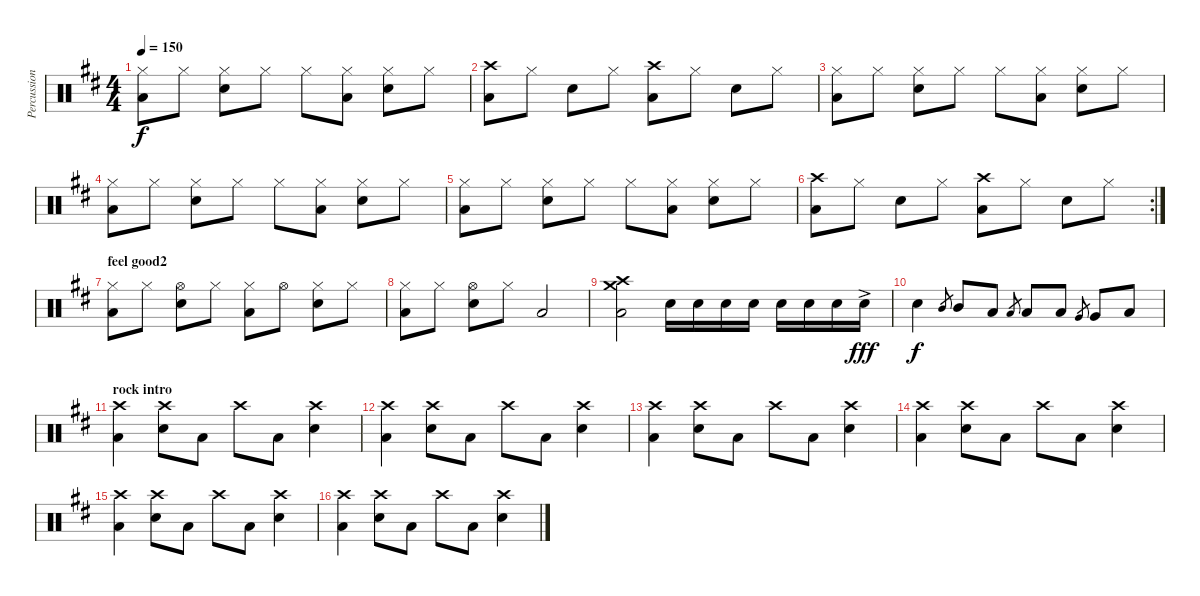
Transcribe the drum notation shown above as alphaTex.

\track ("Percussion" "Percussion") {instrument percussion}
\staff {score}
\articulation defaults
\ts (4 4)
\tempo 150
\clef neutral
\ks bminor
("Hi-Hat (closed)" "Low Floor Tom (hit)").8{dy f} "Hi-Hat (closed)".8 ("Hi-Hat (closed)" "Electric Snare (hit)").8 "Hi-Hat (closed)".8 "Hi-Hat (closed)".8 ("Hi-Hat (closed)" "Low Floor Tom (hit)").8 ("Hi-Hat (closed)" "Electric Snare (hit)").8 "Hi-Hat (closed)".8 |
("Low Floor Tom (hit)" "Crash high (hit)").8 "Hi-Hat (closed)".8 "Electric Snare (hit)".8 "Hi-Hat (closed)".8 ("Crash high (hit)" "Low Floor Tom (hit)").8 "Hi-Hat (closed)".8 "Electric Snare (hit)".8 "Hi-Hat (closed)".8 |
("Hi-Hat (closed)" "Low Floor Tom (hit)").8 "Hi-Hat (closed)".8 ("Hi-Hat (closed)" "Electric Snare (hit)").8 "Hi-Hat (closed)".8 "Hi-Hat (closed)".8 ("Hi-Hat (closed)" "Low Floor Tom (hit)").8 ("Hi-Hat (closed)" "Electric Snare (hit)").8 "Hi-Hat (closed)".8 |
("Hi-Hat (closed)" "Low Floor Tom (hit)").8 "Hi-Hat (closed)".8 ("Hi-Hat (closed)" "Electric Snare (hit)").8 "Hi-Hat (closed)".8 "Hi-Hat (closed)".8 ("Hi-Hat (closed)" "Low Floor Tom (hit)").8 ("Hi-Hat (closed)" "Electric Snare (hit)").8 "Hi-Hat (closed)".8 |
("Hi-Hat (closed)" "Low Floor Tom (hit)").8 "Hi-Hat (closed)".8 ("Hi-Hat (closed)" "Electric Snare (hit)").8 "Hi-Hat (closed)".8 "Hi-Hat (closed)".8 ("Hi-Hat (closed)" "Low Floor Tom (hit)").8 ("Hi-Hat (closed)" "Electric Snare (hit)").8 "Hi-Hat (closed)".8 |
\rc 2
("Low Floor Tom (hit)" "Crash high (hit)").8 "Hi-Hat (closed)".8 "Electric Snare (hit)".8 "Hi-Hat (closed)".8 ("Crash high (hit)" "Low Floor Tom (hit)").8 "Hi-Hat (closed)".8 "Electric Snare (hit)".8 "Hi-Hat (closed)".8 |
\section ("" "feel good2")
("Low Floor Tom (hit)" "Hi-Hat (closed)").8 "Hi-Hat (closed)".8 ("Electric Snare (hit)" "Hi-Hat (open)").8 "Hi-Hat (closed)".8 ("Low Floor Tom (hit)" "Hi-Hat (closed)").8 "Hi-Hat (open)".8 ("Electric Snare (hit)" "Hi-Hat (closed)").8 "Hi-Hat (closed)".8 |
("Low Floor Tom (hit)" "Hi-Hat (closed)").8 "Hi-Hat (closed)".8 ("Electric Snare (hit)" "Hi-Hat (open)").8 "Hi-Hat (closed)".8 "Low Floor Tom (hit)".2 |
("Crash medium (hit)" "Low Floor Tom (hit)" "Crash high (hit)").2 "Electric Snare (hit)".16 "Electric Snare (hit)".16 "Electric Snare (hit)".16 "Electric Snare (hit)".16 "Electric Snare (hit)".16 "Electric Snare (hit)".16 "Electric Snare (hit)".16 "Electric Snare (hit)"{ac}.16{dy fff} |
"Electric Snare (hit)".4{dy f} "Mid Tom (hit)".8{gr} "Mid Tom (hit)".8 "Low Floor Tom (hit)".8 "Low Tom (hit)".8{gr} "Low Tom (hit)".8 "Low Floor Tom (hit)".8 "Very Low Tom (hit)".8{gr} "Very Low Tom (hit)".8 "Low Floor Tom (hit)".8 |
\section ("" "rock intro")
("Crash high (hit)" "Low Floor Tom (hit)").4 ("Crash high (hit)" "Electric Snare (hit)").8 "Low Floor Tom (hit)".8 "Crash high (hit)".8 "Low Floor Tom (hit)".8 ("Crash high (hit)" "Electric Snare (hit)").4 |
("Crash high (hit)" "Low Floor Tom (hit)").4 ("Crash high (hit)" "Electric Snare (hit)").8 "Low Floor Tom (hit)".8 "Crash high (hit)".8 "Low Floor Tom (hit)".8 ("Crash high (hit)" "Electric Snare (hit)").4 |
("Crash high (hit)" "Low Floor Tom (hit)").4 ("Crash high (hit)" "Electric Snare (hit)").8 "Low Floor Tom (hit)".8 "Crash high (hit)".8 "Low Floor Tom (hit)".8 ("Crash high (hit)" "Electric Snare (hit)").4 |
("Crash high (hit)" "Low Floor Tom (hit)").4 ("Crash high (hit)" "Electric Snare (hit)").8 "Low Floor Tom (hit)".8 "Crash high (hit)".8 "Low Floor Tom (hit)".8 ("Crash high (hit)" "Electric Snare (hit)").4 |
("Crash high (hit)" "Low Floor Tom (hit)").4 ("Crash high (hit)" "Electric Snare (hit)").8 "Low Floor Tom (hit)".8 "Crash high (hit)".8 "Low Floor Tom (hit)".8 ("Crash high (hit)" "Electric Snare (hit)").4 |
("Crash high (hit)" "Low Floor Tom (hit)").4 ("Crash high (hit)" "Electric Snare (hit)").8 "Low Floor Tom (hit)".8 "Crash high (hit)".8 "Low Floor Tom (hit)".8 ("Crash high (hit)" "Electric Snare (hit)").4
